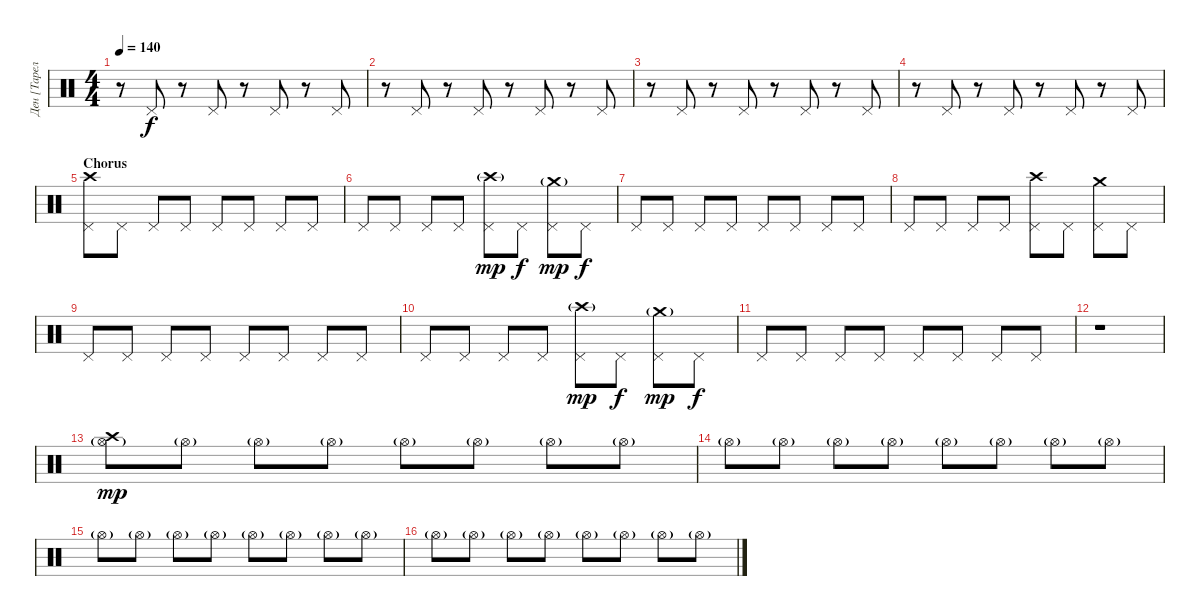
\track ("Ден [Тарелки]" "Ден [Тарел") {instrument percussion}
\staff {score}
\articulation defaults
\ts (4 4)
\tempo 140
\clef neutral
\ks c
r.8{dy f} "Pedal Hi-Hat (hit)".8 r.8 "Pedal Hi-Hat (hit)".8 r.8 "Pedal Hi-Hat (hit)".8 r.8 "Pedal Hi-Hat (hit)".8 |
r.8 "Pedal Hi-Hat (hit)".8 r.8 "Pedal Hi-Hat (hit)".8 r.8 "Pedal Hi-Hat (hit)".8 r.8 "Pedal Hi-Hat (hit)".8 |
r.8 "Pedal Hi-Hat (hit)".8 r.8 "Pedal Hi-Hat (hit)".8 r.8 "Pedal Hi-Hat (hit)".8 r.8 "Pedal Hi-Hat (hit)".8 |
r.8 "Pedal Hi-Hat (hit)".8 r.8 "Pedal Hi-Hat (hit)".8 r.8 "Pedal Hi-Hat (hit)".8 r.8 "Pedal Hi-Hat (hit)".8 |
\section ("" "Chorus")
("Crash high (hit)" "Pedal Hi-Hat (hit)").8 "Pedal Hi-Hat (hit)".8 "Pedal Hi-Hat (hit)".8 "Pedal Hi-Hat (hit)".8 "Pedal Hi-Hat (hit)".8 "Pedal Hi-Hat (hit)".8 "Pedal Hi-Hat (hit)".8 "Pedal Hi-Hat (hit)".8 |
"Pedal Hi-Hat (hit)".8 "Pedal Hi-Hat (hit)".8 "Pedal Hi-Hat (hit)".8 "Pedal Hi-Hat (hit)".8 ("Crash high (hit)"{g} "Pedal Hi-Hat (hit)"{tr (44 32)}).8{dy mp} "Pedal Hi-Hat (hit)".8{dy f} ("Crash medium (hit)"{g} "Pedal Hi-Hat (hit)"{tr (44 32)}).8{dy mp} "Pedal Hi-Hat (hit)".8{dy f} |
"Pedal Hi-Hat (hit)".8 "Pedal Hi-Hat (hit)".8 "Pedal Hi-Hat (hit)".8 "Pedal Hi-Hat (hit)".8 "Pedal Hi-Hat (hit)".8 "Pedal Hi-Hat (hit)".8 "Pedal Hi-Hat (hit)".8 "Pedal Hi-Hat (hit)".8 |
"Pedal Hi-Hat (hit)".8 "Pedal Hi-Hat (hit)".8 "Pedal Hi-Hat (hit)".8 "Pedal Hi-Hat (hit)".8 ("Crash high (hit)" "Pedal Hi-Hat (hit)").8 "Pedal Hi-Hat (hit)".8 ("Crash medium (hit)" "Pedal Hi-Hat (hit)").8 "Pedal Hi-Hat (hit)".8 |
"Pedal Hi-Hat (hit)".8 "Pedal Hi-Hat (hit)".8 "Pedal Hi-Hat (hit)".8 "Pedal Hi-Hat (hit)".8 "Pedal Hi-Hat (hit)".8 "Pedal Hi-Hat (hit)".8 "Pedal Hi-Hat (hit)".8 "Pedal Hi-Hat (hit)".8 |
"Pedal Hi-Hat (hit)".8 "Pedal Hi-Hat (hit)".8 "Pedal Hi-Hat (hit)".8 "Pedal Hi-Hat (hit)".8 ("Crash high (hit)"{g} "Pedal Hi-Hat (hit)"{tr (44 32)}).8{dy mp} "Pedal Hi-Hat (hit)".8{dy f} ("Crash medium (hit)"{g} "Pedal Hi-Hat (hit)"{tr (44 32)}).8{dy mp} "Pedal Hi-Hat (hit)".8{dy f} |
"Pedal Hi-Hat (hit)".8 "Pedal Hi-Hat (hit)".8 "Pedal Hi-Hat (hit)".8 "Pedal Hi-Hat (hit)".8 "Pedal Hi-Hat (hit)".8 "Pedal Hi-Hat (hit)".8 "Pedal Hi-Hat (hit)".8 "Pedal Hi-Hat (hit)".8 |
r.1 |
("Hi-Hat (open)"{g} "Crash high (hit)").8{dy mp} "Hi-Hat (open)"{g}.8 "Hi-Hat (open)"{g}.8 "Hi-Hat (open)"{g}.8 "Hi-Hat (open)"{g}.8 "Hi-Hat (open)"{g}.8 "Hi-Hat (open)"{g}.8 "Hi-Hat (open)"{g}.8 |
"Hi-Hat (open)"{g}.8 "Hi-Hat (open)"{g}.8 "Hi-Hat (open)"{g}.8 "Hi-Hat (open)"{g}.8 "Hi-Hat (open)"{g}.8 "Hi-Hat (open)"{g}.8 "Hi-Hat (open)"{g}.8 "Hi-Hat (open)"{g}.8 |
"Hi-Hat (open)"{g}.8 "Hi-Hat (open)"{g}.8 "Hi-Hat (open)"{g}.8 "Hi-Hat (open)"{g}.8 "Hi-Hat (open)"{g}.8 "Hi-Hat (open)"{g}.8 "Hi-Hat (open)"{g}.8 "Hi-Hat (open)"{g}.8 |
"Hi-Hat (open)"{g}.8 "Hi-Hat (open)"{g}.8 "Hi-Hat (open)"{g}.8 "Hi-Hat (open)"{g}.8 "Hi-Hat (open)"{g}.8 "Hi-Hat (open)"{g}.8 "Hi-Hat (open)"{g}.8 "Hi-Hat (open)"{g}.8
